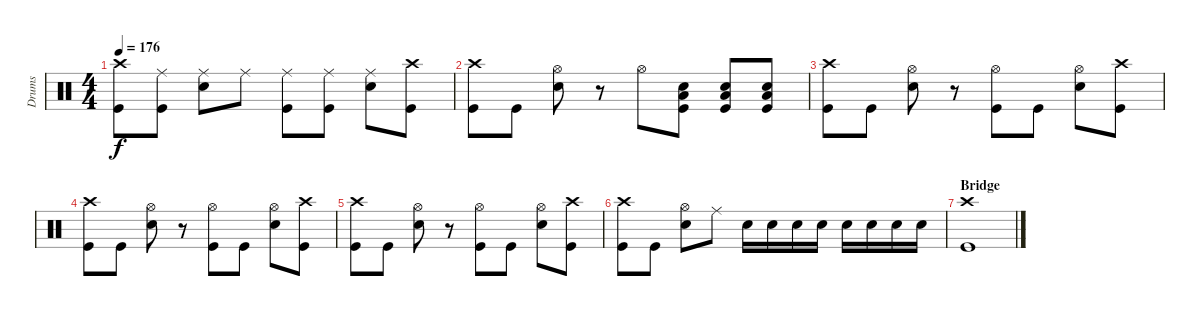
\track ("Drums" "Drums") {instrument percussion}
\staff {score}
\articulation defaults
\ts (4 4)
\tempo 176
\clef neutral
\ks c
("Crash high (hit)" "Kick (hit)").8{dy f} ("Ride (middle)" "Kick (hit)").8 ("Ride (middle)" "Snare (hit) 2").8 "Ride (middle)".8 ("Ride (middle)" "Kick (hit)").8 ("Ride (middle)" "Kick (hit)").8 ("Ride (middle)" "Snare (hit) 2").8 ("Crash high (hit)" "Kick (hit)").8 |
("Crash high (hit)" "Kick (hit)").8 "Kick (hit)".8 ("Hi-Hat (open)" "Snare (hit) 2").8 r.8 "Hi-Hat (open)".8 ("Snare (hit) 2" "Low Floor Tom (hit)" "Kick (hit)").8 ("Snare (hit) 2" "Low Floor Tom (hit)" "Kick (hit)").8 ("Snare (hit) 2" "Low Floor Tom (hit)" "Kick (hit)").8 |
("Crash high (hit)" "Kick (hit)").8 "Kick (hit)".8 ("Hi-Hat (open)" "Snare (hit) 2").8 r.8 ("Hi-Hat (open)" "Kick (hit)").8 "Kick (hit)".8 ("Hi-Hat (open)" "Snare (hit) 2").8 ("Crash high (hit)" "Kick (hit)").8 |
("Crash high (hit)" "Kick (hit)").8 "Kick (hit)".8 ("Hi-Hat (open)" "Snare (hit) 2").8 r.8 ("Hi-Hat (open)" "Kick (hit)").8 "Kick (hit)".8 ("Hi-Hat (open)" "Snare (hit) 2").8 ("Crash high (hit)" "Kick (hit)").8 |
("Crash high (hit)" "Kick (hit)").8 "Kick (hit)".8 ("Hi-Hat (open)" "Snare (hit) 2").8 r.8 ("Hi-Hat (open)" "Kick (hit)").8 "Kick (hit)".8 ("Hi-Hat (open)" "Snare (hit) 2").8 ("Crash high (hit)" "Kick (hit)").8 |
("Crash high (hit)" "Kick (hit)").8 "Kick (hit)".8 ("Hi-Hat (open)" "Snare (hit) 2").8 "Ride (middle)".8 "Snare (hit) 2".16 "Snare (hit) 2".16 "Snare (hit) 2".16 "Snare (hit) 2".16 "Snare (hit) 2".16 "Snare (hit) 2".16 "Snare (hit) 2".16 "Snare (hit) 2".16 |
\section ("" "Bridge")
("Crash high (hit)" "Kick (hit)").1
